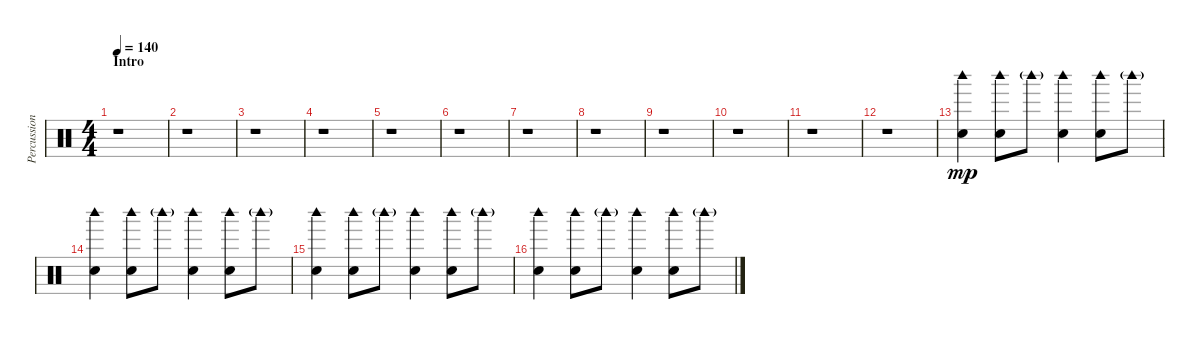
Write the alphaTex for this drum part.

\track ("Percussion" "Percussion") {instrument percussion}
\staff {score}
\articulation defaults
\ts (4 4)
\section ("" "Intro")
\tempo 140
\clef neutral
\ks c
r.1{dy mp} |
r.1 |
r.1 |
r.1 |
r.1 |
r.1 |
r.1 |
r.1 |
r.1 |
r.1 |
r.1 |
r.1 |
("Woodblock high (hit)" "Electric Snare (hit)").4 ("Woodblock high (hit)" "Electric Snare (hit)").8 "Woodblock high (hit)"{g}.8 ("Woodblock high (hit)" "Electric Snare (hit)").4 ("Woodblock high (hit)" "Electric Snare (hit)").8 "Woodblock high (hit)"{g}.8 |
("Woodblock high (hit)" "Electric Snare (hit)").4 ("Woodblock high (hit)" "Electric Snare (hit)").8 "Woodblock high (hit)"{g}.8 ("Woodblock high (hit)" "Electric Snare (hit)").4 ("Woodblock high (hit)" "Electric Snare (hit)").8 "Woodblock high (hit)"{g}.8 |
("Woodblock high (hit)" "Electric Snare (hit)").4 ("Woodblock high (hit)" "Electric Snare (hit)").8 "Woodblock high (hit)"{g}.8 ("Woodblock high (hit)" "Electric Snare (hit)").4 ("Woodblock high (hit)" "Electric Snare (hit)").8 "Woodblock high (hit)"{g}.8 |
("Woodblock high (hit)" "Electric Snare (hit)").4 ("Woodblock high (hit)" "Electric Snare (hit)").8 "Woodblock high (hit)"{g}.8 ("Woodblock high (hit)" "Electric Snare (hit)").4 ("Woodblock high (hit)" "Electric Snare (hit)").8 "Woodblock high (hit)"{g}.8
